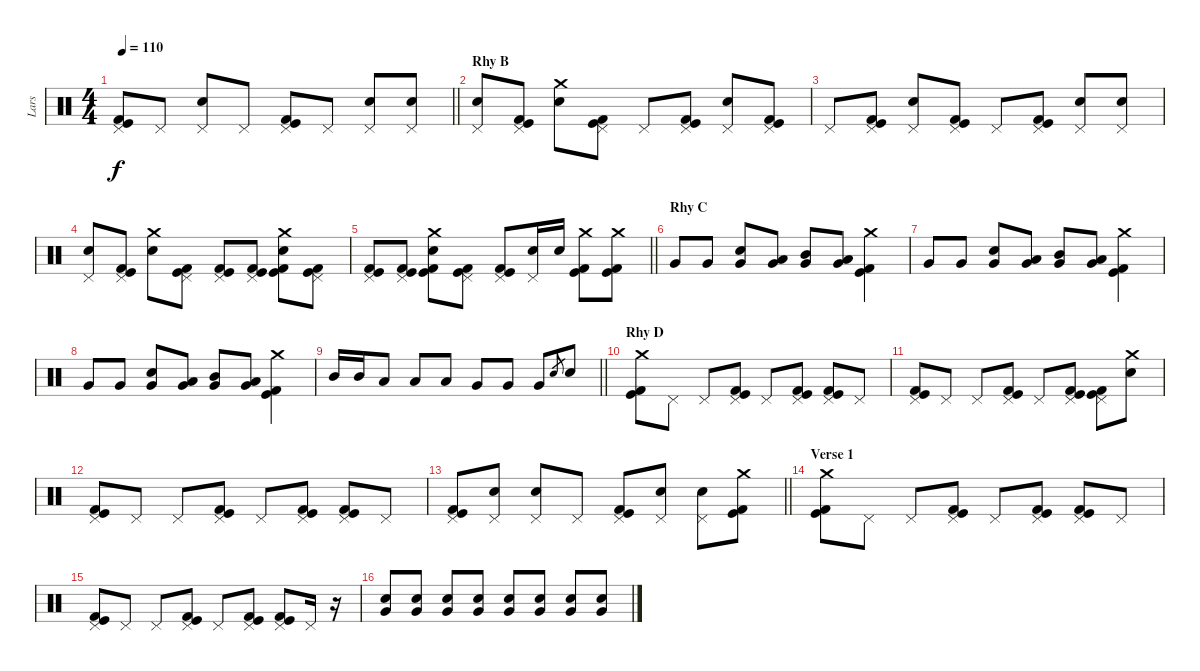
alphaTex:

\track ("Lars" "Lars") {instrument percussion}
\staff {score}
\articulation defaults
\ts (4 4)
\tempo 110
\clef neutral
\barLineRight lightlight
\ks c
("Pedal Hi-Hat (hit)" "Kick (hit)" "Kick (hit) 2").8{dy f} "Pedal Hi-Hat (hit)".8 ("Pedal Hi-Hat (hit)" "Electric Snare (hit)").8 "Pedal Hi-Hat (hit)".8 ("Pedal Hi-Hat (hit)" "Kick (hit)" "Kick (hit) 2").8 "Pedal Hi-Hat (hit)".8 ("Pedal Hi-Hat (hit)" "Electric Snare (hit)").8 ("Pedal Hi-Hat (hit)" "Electric Snare (hit)").8 |
\section ("" "Rhy B")
("Pedal Hi-Hat (hit)" "Electric Snare (hit)").8 ("Pedal Hi-Hat (hit)" "Kick (hit)" "Kick (hit) 2").8 ("Crash medium (hit)" "Electric Snare (hit)").8 ("Pedal Hi-Hat (hit)" "Kick (hit)" "Kick (hit) 2").8 "Pedal Hi-Hat (hit)".8 ("Pedal Hi-Hat (hit)" "Kick (hit)" "Kick (hit) 2").8 ("Pedal Hi-Hat (hit)" "Electric Snare (hit)").8 ("Pedal Hi-Hat (hit)" "Kick (hit)" "Kick (hit) 2").8 |
"Pedal Hi-Hat (hit)".8 ("Pedal Hi-Hat (hit)" "Kick (hit)" "Kick (hit) 2").8 ("Pedal Hi-Hat (hit)" "Electric Snare (hit)").8 ("Pedal Hi-Hat (hit)" "Kick (hit)" "Kick (hit) 2").8 "Pedal Hi-Hat (hit)".8 ("Pedal Hi-Hat (hit)" "Kick (hit)" "Kick (hit) 2").8 ("Pedal Hi-Hat (hit)" "Electric Snare (hit)").8 ("Pedal Hi-Hat (hit)" "Electric Snare (hit)").8 |
("Pedal Hi-Hat (hit)" "Electric Snare (hit)").8 ("Pedal Hi-Hat (hit)" "Kick (hit)" "Kick (hit) 2").8 ("Crash medium (hit)" "Electric Snare (hit)").8 ("Pedal Hi-Hat (hit)" "Kick (hit)" "Kick (hit) 2").8 ("Pedal Hi-Hat (hit)" "Kick (hit)" "Kick (hit) 2").8 ("Pedal Hi-Hat (hit)" "Kick (hit)" "Kick (hit) 2").8 ("Crash medium (hit)" "Electric Snare (hit)" "Kick (hit)" "Kick (hit) 2").8 ("Pedal Hi-Hat (hit)" "Kick (hit)" "Kick (hit) 2").8 |
\barLineRight lightlight
("Pedal Hi-Hat (hit)" "Kick (hit)" "Kick (hit) 2").8 ("Pedal Hi-Hat (hit)" "Kick (hit)" "Kick (hit) 2").8 ("Crash medium (hit)" "Electric Snare (hit)" "Kick (hit)" "Kick (hit) 2").8 ("Pedal Hi-Hat (hit)" "Kick (hit)" "Kick (hit) 2").8 ("Pedal Hi-Hat (hit)" "Kick (hit)" "Kick (hit) 2").8 ("Pedal Hi-Hat (hit)" "Electric Snare (hit)").16 "Electric Snare (hit)".16 ("Crash medium (hit)" "Kick (hit)" "Kick (hit) 2").8 ("Crash medium (hit)" "Kick (hit)" "Kick (hit) 2").8 |
\section ("" "Rhy C")
"Very Low Tom (hit)".8 "Very Low Tom (hit)".8 ("Very Low Tom (hit)" "Electric Snare (hit)").8 ("Very Low Tom (hit)" "Low Tom (hit)").8 ("Very Low Tom (hit)" "Mid Tom (hit)").8 ("Very Low Tom (hit)" "Low Tom (hit)").8 ("Crash medium (hit)" "Kick (hit)" "Kick (hit) 2").4 |
"Very Low Tom (hit)".8 "Very Low Tom (hit)".8 ("Very Low Tom (hit)" "Electric Snare (hit)").8 ("Very Low Tom (hit)" "Low Tom (hit)").8 ("Very Low Tom (hit)" "Mid Tom (hit)").8 ("Very Low Tom (hit)" "Low Tom (hit)").8 ("Crash medium (hit)" "Kick (hit)" "Kick (hit) 2").4 |
"Very Low Tom (hit)".8 "Very Low Tom (hit)".8 ("Very Low Tom (hit)" "Electric Snare (hit)").8 ("Very Low Tom (hit)" "Low Tom (hit)").8 ("Very Low Tom (hit)" "Mid Tom (hit)").8 ("Very Low Tom (hit)" "Low Tom (hit)").8 ("Crash medium (hit)" "Kick (hit)" "Kick (hit) 2").4 |
\barLineRight lightlight "Mid Tom (hit)".16 "Mid Tom (hit)".16 "Low Tom (hit)".8 "Low Tom (hit)".8 "Low Tom (hit)".8 "Very Low Tom (hit)".8 "Very Low Tom (hit)".8 "Very Low Tom (hit)".8 "Electric Snare (hit)".8{gr} "Electric Snare (hit)".8
|
\section ("" "Rhy D")
("Crash medium (hit)" "Kick (hit)" "Kick (hit) 2").8 "Pedal Hi-Hat (hit)".8 "Pedal Hi-Hat (hit)".8 ("Pedal Hi-Hat (hit)" "Kick (hit)" "Kick (hit) 2").8 "Pedal Hi-Hat (hit)".8 ("Pedal Hi-Hat (hit)" "Kick (hit)" "Kick (hit) 2").8 ("Pedal Hi-Hat (hit)" "Kick (hit)" "Kick (hit) 2").8 "Pedal Hi-Hat (hit)".8 |
("Pedal Hi-Hat (hit)" "Kick (hit)" "Kick (hit) 2").8 "Pedal Hi-Hat (hit)".8 "Pedal Hi-Hat (hit)".8 ("Pedal Hi-Hat (hit)" "Kick (hit)" "Kick (hit) 2").8 "Pedal Hi-Hat (hit)".8 ("Pedal Hi-Hat (hit)" "Kick (hit)" "Kick (hit) 2").8 ("Pedal Hi-Hat (hit)" "Kick (hit)" "Kick (hit) 2").8 ("Crash medium (hit)" "Electric Snare (hit)").8 |
("Pedal Hi-Hat (hit)" "Kick (hit)" "Kick (hit) 2").8 "Pedal Hi-Hat (hit)".8 "Pedal Hi-Hat (hit)".8 ("Pedal Hi-Hat (hit)" "Kick (hit)" "Kick (hit) 2").8 "Pedal Hi-Hat (hit)".8 ("Pedal Hi-Hat (hit)" "Kick (hit)" "Kick (hit) 2").8 ("Pedal Hi-Hat (hit)" "Kick (hit)" "Kick (hit) 2").8 "Pedal Hi-Hat (hit)".8 |
\barLineRight lightlight
("Pedal Hi-Hat (hit)" "Kick (hit)" "Kick (hit) 2").8 ("Pedal Hi-Hat (hit)" "Electric Snare (hit)").8 ("Pedal Hi-Hat (hit)" "Electric Snare (hit)").8 "Pedal Hi-Hat (hit)".8 ("Pedal Hi-Hat (hit)" "Kick (hit)" "Kick (hit) 2").8 ("Pedal Hi-Hat (hit)" "Electric Snare (hit)").8 ("Pedal Hi-Hat (hit)" "Electric Snare (hit)").8 ("Crash medium (hit)" "Kick (hit)" "Kick (hit) 2").8 |
\section ("" "Verse 1")
("Crash medium (hit)" "Kick (hit)" "Kick (hit) 2").8 "Pedal Hi-Hat (hit)".8 "Pedal Hi-Hat (hit)".8 ("Pedal Hi-Hat (hit)" "Kick (hit)" "Kick (hit) 2").8 "Pedal Hi-Hat (hit)".8 ("Pedal Hi-Hat (hit)" "Kick (hit)" "Kick (hit) 2").8 ("Pedal Hi-Hat (hit)" "Kick (hit)" "Kick (hit) 2").8 "Pedal Hi-Hat (hit)".8 |
("Pedal Hi-Hat (hit)" "Kick (hit)" "Kick (hit) 2").8 "Pedal Hi-Hat (hit)".8 "Pedal Hi-Hat (hit)".8 ("Pedal Hi-Hat (hit)" "Kick (hit)" "Kick (hit) 2").8 "Pedal Hi-Hat (hit)".8 ("Pedal Hi-Hat (hit)" "Kick (hit)" "Kick (hit) 2").8 ("Pedal Hi-Hat (hit)" "Kick (hit)" "Kick (hit) 2").8 "Pedal Hi-Hat (hit)".16 r.16{volume 5} |
("Electric Snare (hit)" "Very Low Tom (hit)").8{volume 16} ("Electric Snare (hit)" "Very Low Tom (hit)").8 ("Electric Snare (hit)" "Very Low Tom (hit)").8 ("Electric Snare (hit)" "Very Low Tom (hit)").8 ("Electric Snare (hit)" "Very Low Tom (hit)").8 ("Electric Snare (hit)" "Very Low Tom (hit)").8 ("Electric Snare (hit)" "Very Low Tom (hit)").8 ("Electric Snare (hit)" "Very Low Tom (hit)").8
